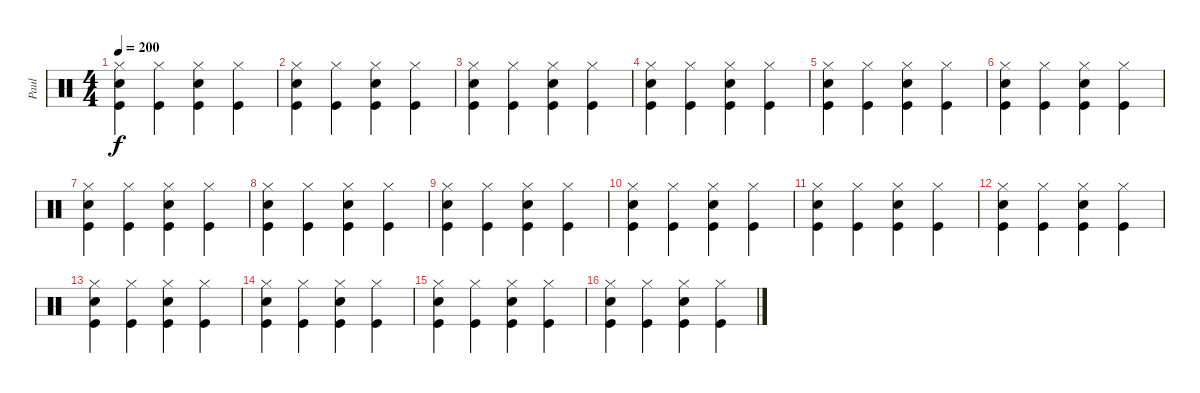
\track ("Paul" "Paul") {instrument percussion}
\staff {score}
\articulation defaults
\ts (4 4)
\tempo 200
\clef neutral
\ks c
("Hi-Hat (closed)" "Snare (hit) 2" "Kick (hit)").4{dy f} ("Hi-Hat (closed)" "Kick (hit)").4 ("Hi-Hat (closed)" "Snare (hit) 2" "Kick (hit)").4 ("Hi-Hat (closed)" "Kick (hit)").4 |
("Hi-Hat (closed)" "Snare (hit) 2" "Kick (hit)").4 ("Hi-Hat (closed)" "Kick (hit)").4 ("Hi-Hat (closed)" "Snare (hit) 2" "Kick (hit)").4 ("Hi-Hat (closed)" "Kick (hit)").4 |
("Hi-Hat (closed)" "Snare (hit) 2" "Kick (hit)").4 ("Hi-Hat (closed)" "Kick (hit)").4 ("Hi-Hat (closed)" "Snare (hit) 2" "Kick (hit)").4 ("Hi-Hat (closed)" "Kick (hit)").4 |
("Hi-Hat (closed)" "Snare (hit) 2" "Kick (hit)").4 ("Hi-Hat (closed)" "Kick (hit)").4 ("Hi-Hat (closed)" "Snare (hit) 2" "Kick (hit)").4 ("Hi-Hat (closed)" "Kick (hit)").4 |
("Hi-Hat (closed)" "Snare (hit) 2" "Kick (hit)").4 ("Hi-Hat (closed)" "Kick (hit)").4 ("Hi-Hat (closed)" "Snare (hit) 2" "Kick (hit)").4 ("Hi-Hat (closed)" "Kick (hit)").4 |
("Hi-Hat (closed)" "Snare (hit) 2" "Kick (hit)").4 ("Hi-Hat (closed)" "Kick (hit)").4 ("Hi-Hat (closed)" "Snare (hit) 2" "Kick (hit)").4 ("Hi-Hat (closed)" "Kick (hit)").4 |
("Hi-Hat (closed)" "Snare (hit) 2" "Kick (hit)").4 ("Hi-Hat (closed)" "Kick (hit)").4 ("Hi-Hat (closed)" "Snare (hit) 2" "Kick (hit)").4 ("Hi-Hat (closed)" "Kick (hit)").4 |
("Hi-Hat (closed)" "Snare (hit) 2" "Kick (hit)").4 ("Hi-Hat (closed)" "Kick (hit)").4 ("Hi-Hat (closed)" "Snare (hit) 2" "Kick (hit)").4 ("Hi-Hat (closed)" "Kick (hit)").4 |
("Hi-Hat (closed)" "Snare (hit) 2" "Kick (hit)").4 ("Hi-Hat (closed)" "Kick (hit)").4 ("Hi-Hat (closed)" "Snare (hit) 2" "Kick (hit)").4 ("Hi-Hat (closed)" "Kick (hit)").4 |
("Hi-Hat (closed)" "Snare (hit) 2" "Kick (hit)").4 ("Hi-Hat (closed)" "Kick (hit)").4 ("Hi-Hat (closed)" "Snare (hit) 2" "Kick (hit)").4 ("Hi-Hat (closed)" "Kick (hit)").4 |
("Hi-Hat (closed)" "Snare (hit) 2" "Kick (hit)").4 ("Hi-Hat (closed)" "Kick (hit)").4 ("Hi-Hat (closed)" "Snare (hit) 2" "Kick (hit)").4 ("Hi-Hat (closed)" "Kick (hit)").4 |
("Hi-Hat (closed)" "Snare (hit) 2" "Kick (hit)").4 ("Hi-Hat (closed)" "Kick (hit)").4 ("Hi-Hat (closed)" "Snare (hit) 2" "Kick (hit)").4 ("Hi-Hat (closed)" "Kick (hit)").4 |
("Hi-Hat (closed)" "Snare (hit) 2" "Kick (hit)").4 ("Hi-Hat (closed)" "Kick (hit)").4 ("Hi-Hat (closed)" "Snare (hit) 2" "Kick (hit)").4 ("Hi-Hat (closed)" "Kick (hit)").4 |
("Hi-Hat (closed)" "Snare (hit) 2" "Kick (hit)").4 ("Hi-Hat (closed)" "Kick (hit)").4 ("Hi-Hat (closed)" "Snare (hit) 2" "Kick (hit)").4 ("Hi-Hat (closed)" "Kick (hit)").4 |
("Hi-Hat (closed)" "Snare (hit) 2" "Kick (hit)").4 ("Hi-Hat (closed)" "Kick (hit)").4 ("Hi-Hat (closed)" "Snare (hit) 2" "Kick (hit)").4 ("Hi-Hat (closed)" "Kick (hit)").4 |
("Hi-Hat (closed)" "Snare (hit) 2" "Kick (hit)").4 ("Hi-Hat (closed)" "Kick (hit)").4 ("Hi-Hat (closed)" "Snare (hit) 2" "Kick (hit)").4 ("Hi-Hat (closed)" "Kick (hit)").4
